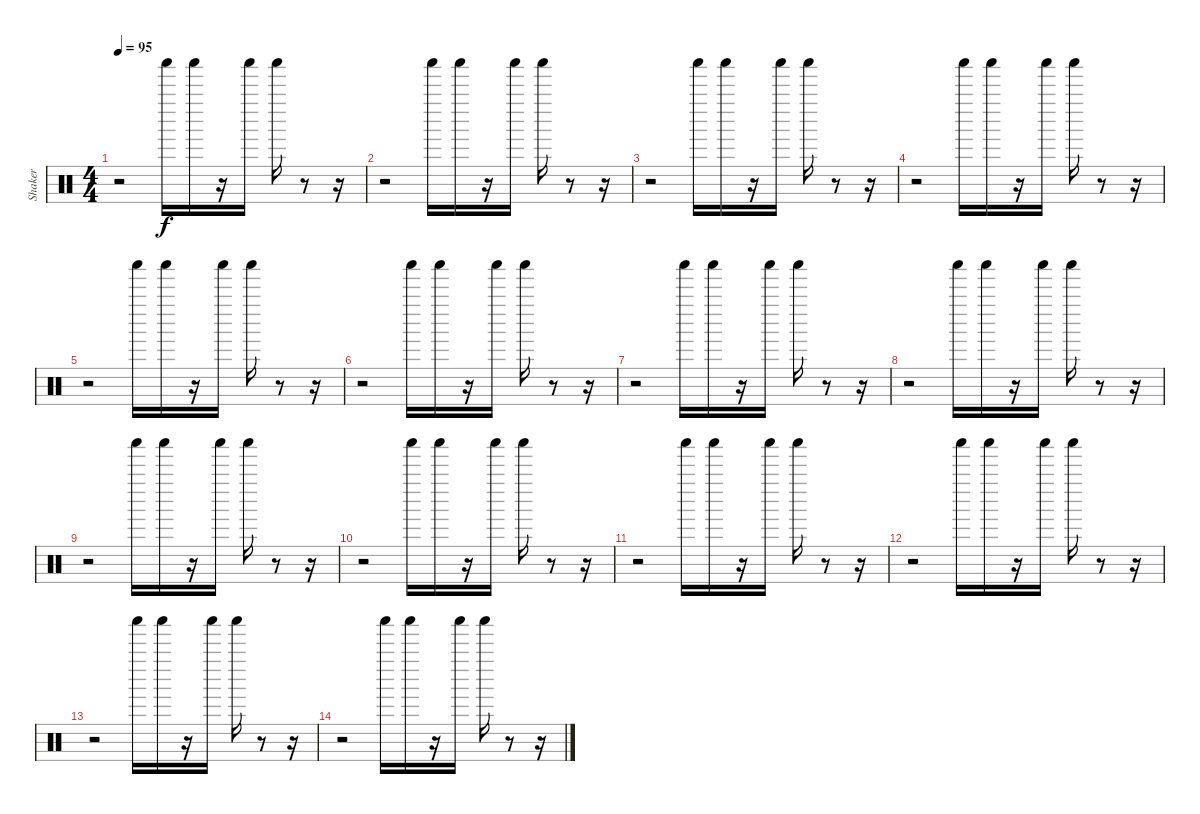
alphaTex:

\track ("Shaker" "Shaker") {instrument percussion}
\staff {score}
\articulation defaults
\ts (4 4)
\tempo 95
\clef neutral
\ks c
r.2{dy f} "Shaker (hit)".16 "Shaker (hit)".16 r.16 "Shaker (hit)".16 "Shaker (hit)".16 r.8 r.16 |
r.2 "Shaker (hit)".16 "Shaker (hit)".16 r.16 "Shaker (hit)".16 "Shaker (hit)".16 r.8 r.16 |
r.2 "Shaker (hit)".16 "Shaker (hit)".16 r.16 "Shaker (hit)".16 "Shaker (hit)".16 r.8 r.16 |
r.2 "Shaker (hit)".16 "Shaker (hit)".16 r.16 "Shaker (hit)".16 "Shaker (hit)".16 r.8 r.16 |
r.2 "Shaker (hit)".16 "Shaker (hit)".16 r.16 "Shaker (hit)".16 "Shaker (hit)".16 r.8 r.16 |
r.2 "Shaker (hit)".16 "Shaker (hit)".16 r.16 "Shaker (hit)".16 "Shaker (hit)".16 r.8 r.16 |
r.2 "Shaker (hit)".16 "Shaker (hit)".16 r.16 "Shaker (hit)".16 "Shaker (hit)".16 r.8 r.16 |
r.2 "Shaker (hit)".16 "Shaker (hit)".16 r.16 "Shaker (hit)".16 "Shaker (hit)".16 r.8 r.16 |
r.2 "Shaker (hit)".16 "Shaker (hit)".16 r.16 "Shaker (hit)".16 "Shaker (hit)".16 r.8 r.16 |
r.2 "Shaker (hit)".16 "Shaker (hit)".16 r.16 "Shaker (hit)".16 "Shaker (hit)".16 r.8 r.16 |
r.2 "Shaker (hit)".16 "Shaker (hit)".16 r.16 "Shaker (hit)".16 "Shaker (hit)".16 r.8 r.16 |
r.2 "Shaker (hit)".16 "Shaker (hit)".16 r.16 "Shaker (hit)".16 "Shaker (hit)".16 r.8 r.16 |
r.2 "Shaker (hit)".16 "Shaker (hit)".16 r.16 "Shaker (hit)".16 "Shaker (hit)".16 r.8 r.16 |
r.2 "Shaker (hit)".16 "Shaker (hit)".16 r.16 "Shaker (hit)".16 "Shaker (hit)".16 r.8 r.16
